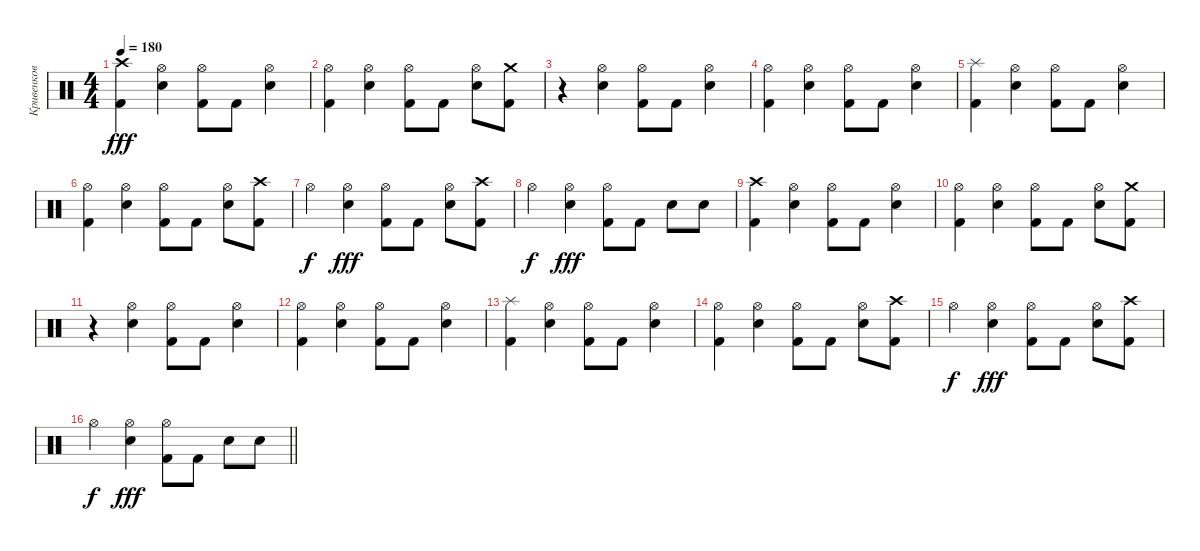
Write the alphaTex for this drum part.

\track ("Кривенков" "Кривенков") {instrument percussion}
\staff {score}
\articulation defaults
\ts (4 4)
\tempo 180
\clef neutral
\ks c
("Crash high (hit)" "Kick (hit) 2").4{dy fff} ("Snare (hit) 2" "Hi-Hat (open)").4 ("Hi-Hat (open)" "Kick (hit) 2").8 "Kick (hit) 2".8 ("Hi-Hat (open)" "Snare (hit) 2").4 |
("Hi-Hat (open)" "Kick (hit) 2").4 ("Snare (hit) 2" "Hi-Hat (open)").4 ("Kick (hit) 2" "Hi-Hat (open)").8 "Kick (hit) 2".8 ("Hi-Hat (open)" "Snare (hit) 2").8 ("Kick (hit) 2" "Crash medium (hit)").8 |
r.4 ("Hi-Hat (open)" "Snare (hit) 2").4 ("Kick (hit) 2" "Hi-Hat (open)").8 "Kick (hit) 2".8 ("Hi-Hat (open)" "Snare (hit) 2").4 |
("Hi-Hat (open)" "Kick (hit) 2").4 ("Snare (hit) 2" "Hi-Hat (open)").4 ("Hi-Hat (open)" "Kick (hit) 2").8 "Kick (hit) 2".8 ("Snare (hit) 2" "Hi-Hat (open)").4 |
("Splash (hit)" "Kick (hit) 2").4 ("Hi-Hat (open)" "Snare (hit) 2").4 ("Hi-Hat (open)" "Kick (hit) 2").8 "Kick (hit) 2".8 ("Snare (hit) 2" "Hi-Hat (open)").4 |
("Kick (hit) 2" "Hi-Hat (open)").4 ("Snare (hit) 2" "Hi-Hat (open)").4 ("Hi-Hat (open)" "Kick (hit) 2").8 "Kick (hit) 2".8 ("Snare (hit) 2" "Hi-Hat (open)").8 ("Kick (hit) 2" "Crash high (hit)").8 |
"Hi-Hat (open)".4{dy f} ("Hi-Hat (open)" "Snare (hit) 2").4{dy fff} ("Hi-Hat (open)" "Kick (hit) 2").8 "Kick (hit) 2".8 ("Snare (hit) 2" "Hi-Hat (open)").8 ("Crash high (hit)" "Kick (hit) 2").8 |
"Hi-Hat (open)".4{dy f} ("Hi-Hat (open)" "Snare (hit) 2").4{dy fff} ("Hi-Hat (open)" "Kick (hit) 2").8 "Kick (hit) 2".8 "Snare (hit) 2".8 "Snare (hit) 2".8 |
("Crash high (hit)" "Kick (hit) 2").4 ("Hi-Hat (open)" "Snare (hit) 2").4 ("Hi-Hat (open)" "Kick (hit) 2").8 "Kick (hit) 2".8 ("Hi-Hat (open)" "Snare (hit) 2").4 |
("Kick (hit) 2" "Hi-Hat (open)").4 ("Snare (hit) 2" "Hi-Hat (open)").4 ("Kick (hit) 2" "Hi-Hat (open)").8 "Kick (hit) 2".8 ("Hi-Hat (open)" "Snare (hit) 2").8 ("Crash medium (hit)" "Kick (hit) 2").8 |
r.4 ("Hi-Hat (open)" "Snare (hit) 2").4 ("Kick (hit) 2" "Hi-Hat (open)").8 "Kick (hit) 2".8 ("Hi-Hat (open)" "Snare (hit) 2").4 |
("Kick (hit) 2" "Hi-Hat (open)").4 ("Snare (hit) 2" "Hi-Hat (open)").4 ("Kick (hit) 2" "Hi-Hat (open)").8 "Kick (hit) 2".8 ("Snare (hit) 2" "Hi-Hat (open)").4 |
("Splash (hit)" "Kick (hit) 2").4 ("Snare (hit) 2" "Hi-Hat (open)").4 ("Hi-Hat (open)" "Kick (hit) 2").8 "Kick (hit) 2".8 ("Hi-Hat (open)" "Snare (hit) 2").4 |
("Kick (hit) 2" "Hi-Hat (open)").4 ("Snare (hit) 2" "Hi-Hat (open)").4 ("Hi-Hat (open)" "Kick (hit) 2").8 "Kick (hit) 2".8 ("Hi-Hat (open)" "Snare (hit) 2").8 ("Crash high (hit)" "Kick (hit) 2").8 |
"Hi-Hat (open)".4{dy f} ("Snare (hit) 2" "Hi-Hat (open)").4{dy fff} ("Hi-Hat (open)" "Kick (hit) 2").8 "Kick (hit) 2".8 ("Hi-Hat (open)" "Snare (hit) 2").8 ("Crash high (hit)" "Kick (hit) 2").8 |
\barLineRight lightlight "Hi-Hat (open)".4{dy f}
("Hi-Hat (open)" "Snare (hit) 2").4{dy fff} ("Kick (hit) 2" "Hi-Hat (open)").8 "Kick (hit) 2".8 "Snare (hit) 2".8 "Snare (hit) 2".8
